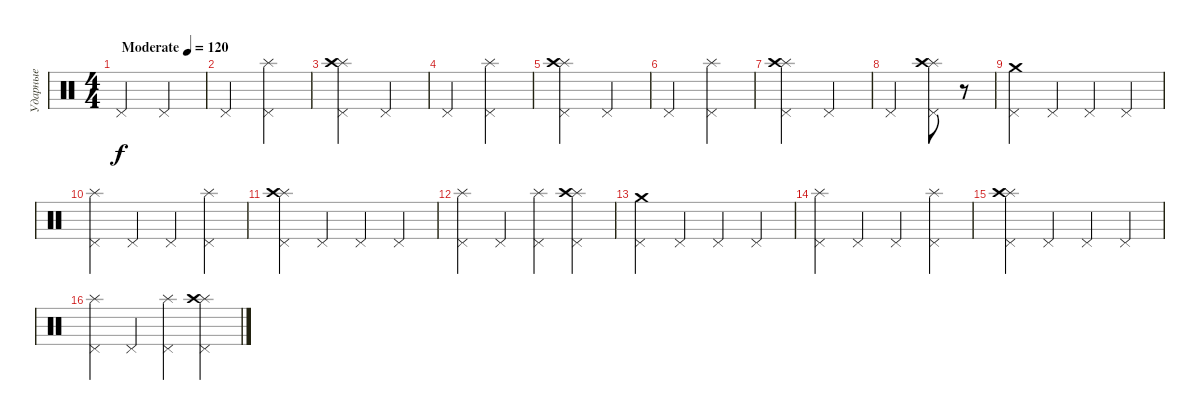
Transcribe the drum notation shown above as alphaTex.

\track ("Ударные" "Ударные") {instrument percussion}
\staff {score}
\articulation defaults
\ts (4 4)
\tempo (120 "Moderate")
\clef neutral
\ks c "Pedal Hi-Hat (hit)".2{dy f} "Pedal Hi-Hat (hit)".2
|
"Pedal Hi-Hat (hit)".2 ("Pedal Hi-Hat (hit)" "Splash (hit)").2 |
("Pedal Hi-Hat (hit)" "Splash (hit)" "Crash high (hit)").2 "Pedal Hi-Hat (hit)".2 |
"Pedal Hi-Hat (hit)".2 ("Pedal Hi-Hat (hit)" "Splash (hit)").2 |
("Pedal Hi-Hat (hit)" "Splash (hit)" "Crash high (hit)").2 "Pedal Hi-Hat (hit)".2 |
"Pedal Hi-Hat (hit)".2 ("Pedal Hi-Hat (hit)" "Splash (hit)").2 |
("Pedal Hi-Hat (hit)" "Splash (hit)" "Crash high (hit)").2 "Pedal Hi-Hat (hit)".2 |
"Pedal Hi-Hat (hit)".2 ("Pedal Hi-Hat (hit)" "Splash (hit)" "Crash high (hit)").8 r.8 |
("Pedal Hi-Hat (hit)" "Crash medium (hit)").4 "Pedal Hi-Hat (hit)".4 "Pedal Hi-Hat (hit)".4 "Pedal Hi-Hat (hit)".4 |
("Pedal Hi-Hat (hit)" "Splash (hit)").4 "Pedal Hi-Hat (hit)".4 "Pedal Hi-Hat (hit)".4 ("Pedal Hi-Hat (hit)" "Splash (hit)").4 |
("Pedal Hi-Hat (hit)" "Splash (hit)" "Crash high (hit)").4 "Pedal Hi-Hat (hit)".4 "Pedal Hi-Hat (hit)".4 "Pedal Hi-Hat (hit)".4 |
("Pedal Hi-Hat (hit)" "Splash (hit)").4 "Pedal Hi-Hat (hit)".4 ("Pedal Hi-Hat (hit)" "Splash (hit)").4 ("Pedal Hi-Hat (hit)" "Splash (hit)" "Crash high (hit)").4 |
("Pedal Hi-Hat (hit)" "Crash medium (hit)").4 "Pedal Hi-Hat (hit)".4 "Pedal Hi-Hat (hit)".4 "Pedal Hi-Hat (hit)".4 |
("Pedal Hi-Hat (hit)" "Splash (hit)").4 "Pedal Hi-Hat (hit)".4 "Pedal Hi-Hat (hit)".4 ("Pedal Hi-Hat (hit)" "Splash (hit)").4 |
("Pedal Hi-Hat (hit)" "Splash (hit)" "Crash high (hit)").4 "Pedal Hi-Hat (hit)".4 "Pedal Hi-Hat (hit)".4 "Pedal Hi-Hat (hit)".4 |
("Pedal Hi-Hat (hit)" "Splash (hit)").4 "Pedal Hi-Hat (hit)".4 ("Pedal Hi-Hat (hit)" "Splash (hit)").4 ("Pedal Hi-Hat (hit)" "Splash (hit)" "Crash high (hit)").4
